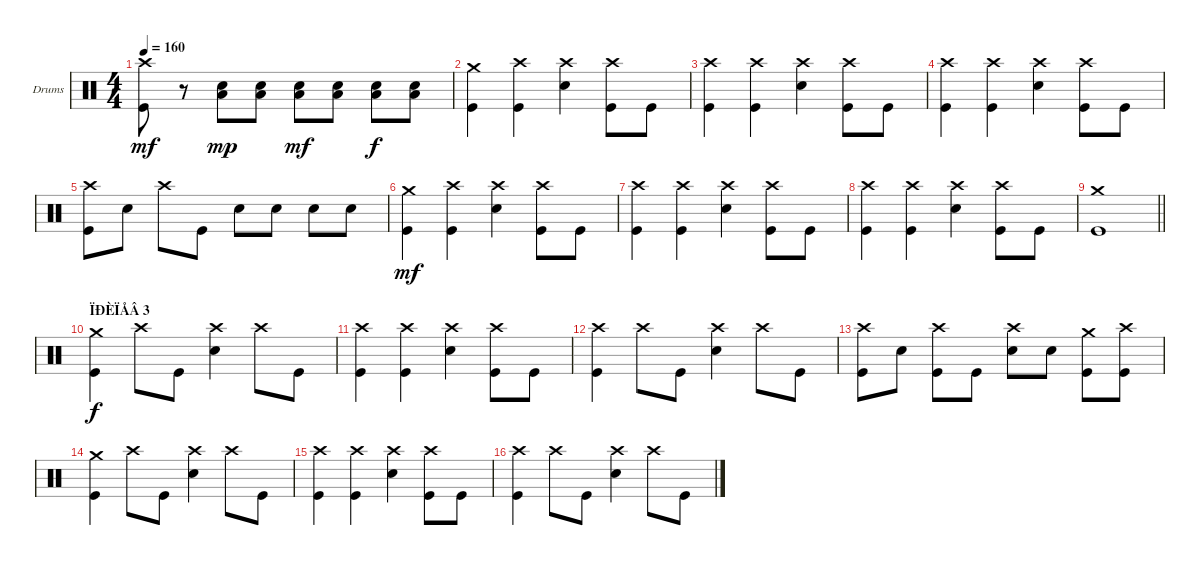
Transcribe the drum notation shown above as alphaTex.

\bracketExtendMode groupsimilarinstruments
\firstSystemTrackNameOrientation horizontal
\otherSystemsTrackNameOrientation horizontal
\track ("Drumkit" "Drums") {instrument percussion}
\staff {score}
\articulation defaults
\ts (4 4)
\tempo 160
\clef neutral
\ks c
("Crash high (hit)" "Kick (hit)").8{dy mf} r.8 ("Low Tom (hit)" "Snare (hit) 2").8{dy mp} ("Low Tom (hit)" "Snare (hit) 2").8 ("Low Tom (hit)" "Snare (hit) 2").8{dy mf} ("Low Tom (hit)" "Snare (hit) 2").8 ("Low Tom (hit)" "Snare (hit) 2").8{dy f} ("Low Tom (hit)" "Snare (hit) 2").8 |
("Kick (hit)" "Crash medium (hit)").4 ("Crash high (hit)" "Kick (hit)").4 ("Crash high (hit)" "Snare (hit) 2").4 ("Crash high (hit)" "Kick (hit)").8 "Kick (hit)".8 |
("Kick (hit)" "Crash high (hit)").4 ("Crash high (hit)" "Kick (hit)").4 ("Crash high (hit)" "Snare (hit) 2").4 ("Crash high (hit)" "Kick (hit)").8 "Kick (hit)".8 |
("Kick (hit)" "Crash high (hit)").4 ("Crash high (hit)" "Kick (hit)").4 ("Crash high (hit)" "Snare (hit) 2").4 ("Crash high (hit)" "Kick (hit)").8 "Kick (hit)".8 |
("Crash high (hit)" "Kick (hit)").8 "Snare (hit) 2".8 "Crash high (hit)".8 "Kick (hit)".8 "Snare (hit) 2".8 "Snare (hit) 2".8 "Snare (hit) 2".8 "Snare (hit) 2".8 |
("Kick (hit)" "Crash medium (hit)").4{dy mf} ("Crash high (hit)" "Kick (hit)").4 ("Crash high (hit)" "Snare (hit) 2").4 ("Crash high (hit)" "Kick (hit)").8 "Kick (hit)".8 |
("Kick (hit)" "Crash high (hit)").4 ("Crash high (hit)" "Kick (hit)").4 ("Crash high (hit)" "Snare (hit) 2").4 ("Crash high (hit)" "Kick (hit)").8 "Kick (hit)".8 |
("Kick (hit)" "Crash high (hit)").4 ("Crash high (hit)" "Kick (hit)").4 ("Crash high (hit)" "Snare (hit) 2").4 ("Crash high (hit)" "Kick (hit)").8 "Kick (hit)".8 |
\barLineRight lightlight
("Crash medium (hit)" "Kick (hit)").1 |
\section ("" "ÏÐÈÏÅÂ 3")
("Kick (hit)" "Crash medium (hit)").4{dy f} "Crash high (hit)".8 "Kick (hit)".8 ("Crash high (hit)" "Snare (hit) 2").4 "Crash high (hit)".8 "Kick (hit)".8 |
("Crash high (hit)" "Kick (hit)").4 ("Crash high (hit)" "Kick (hit)").4 ("Crash high (hit)" "Snare (hit) 2").4 ("Crash high (hit)" "Kick (hit)").8 "Kick (hit)".8 |
("Kick (hit)" "Crash high (hit)").4 "Crash high (hit)".8 "Kick (hit)".8 ("Crash high (hit)" "Snare (hit) 2").4 "Crash high (hit)".8 "Kick (hit)".8 |
("Crash high (hit)" "Kick (hit)").8 "Snare (hit) 2".8 ("Crash high (hit)" "Kick (hit)").8 "Kick (hit)".8 ("Crash high (hit)" "Snare (hit) 2").8 "Snare (hit) 2".8 ("Crash medium (hit)" "Kick (hit)").8 ("Crash high (hit)" "Kick (hit)").8 |
("Kick (hit)" "Crash medium (hit)").4 "Crash high (hit)".8 "Kick (hit)".8 ("Crash high (hit)" "Snare (hit) 2").4 "Crash high (hit)".8 "Kick (hit)".8 |
("Crash high (hit)" "Kick (hit)").4 ("Crash high (hit)" "Kick (hit)").4 ("Crash high (hit)" "Snare (hit) 2").4 ("Crash high (hit)" "Kick (hit)").8 "Kick (hit)".8 |
("Kick (hit)" "Crash high (hit)").4 "Crash high (hit)".8 "Kick (hit)".8 ("Crash high (hit)" "Snare (hit) 2").4 "Crash high (hit)".8 "Kick (hit)".8
